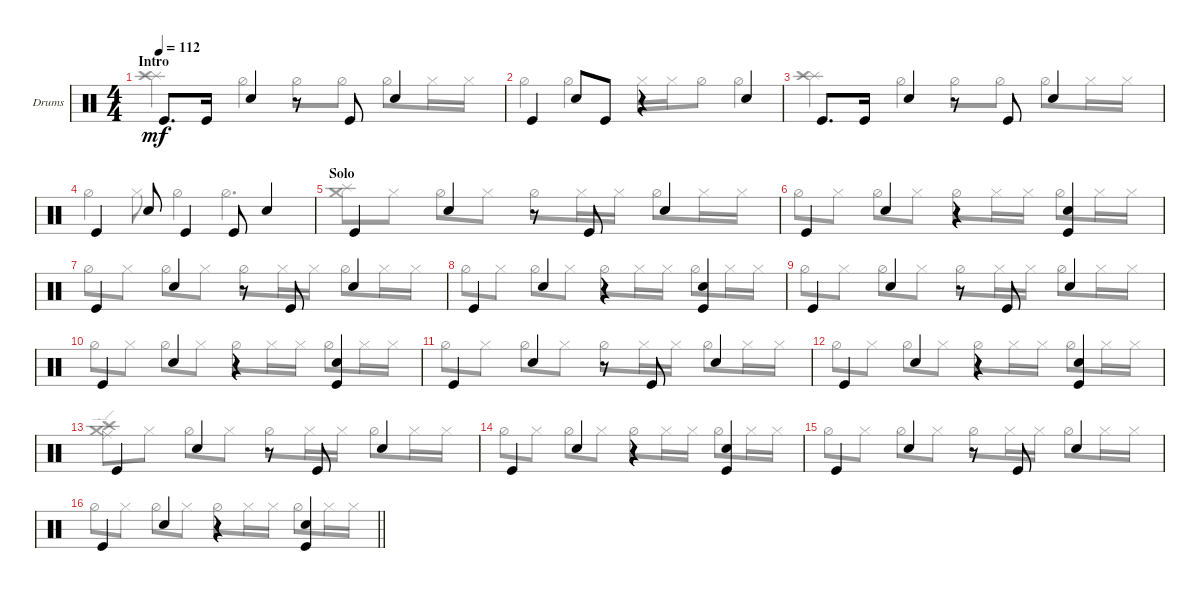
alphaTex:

\defaultSystemsLayout 4
\bracketExtendMode groupsimilarinstruments
\firstSystemTrackNameOrientation horizontal
\otherSystemsTrackNameOrientation horizontal
\track ("Drumkit" "Drums") {multiBarRest instrument percussion}
\staff {score}
\articulation defaults
\voice
\ts (4 4)
\section ("" "Intro")
\tempo 112
\clef neutral
\ks c "Kick (hit)".8{d dy mf} "Kick (hit)".16 "Snare (hit) 2".4
r.8 "Kick (hit)".8 "Snare (hit) 2".4 |
"Kick (hit)".4 "Snare (hit) 2".8 "Kick (hit)".8 r.4 "Snare (hit) 2".4 |
"Kick (hit)".8{d} "Kick (hit)".16 "Snare (hit) 2".4 r.8 "Kick (hit)".8 "Snare (hit) 2".4 |
"Kick (hit)".4 "Snare (hit) 2".8 "Kick (hit)".4 "Kick (hit)".8 "Snare (hit) 2".4 |
\section ("" "Solo")
"Kick (hit)".4 "Snare (hit) 2".4 r.8 "Kick (hit)".8 "Snare (hit) 2".4 |
"Kick (hit)".4 "Snare (hit) 2".4 r.4 ("Snare (hit) 2" "Kick (hit)").4 |
"Kick (hit)".4 "Snare (hit) 2".4 r.8 "Kick (hit)".8 "Snare (hit) 2".4 |
"Kick (hit)".4 "Snare (hit) 2".4 r.4 ("Snare (hit) 2" "Kick (hit)").4 |
"Kick (hit)".4 "Snare (hit) 2".4 r.8 "Kick (hit)".8 "Snare (hit) 2".4 |
"Kick (hit)".4 "Snare (hit) 2".4 r.4 ("Snare (hit) 2" "Kick (hit)").4 |
"Kick (hit)".4 "Snare (hit) 2".4 r.8 "Kick (hit)".8 "Snare (hit) 2".4 |
"Kick (hit)".4 "Snare (hit) 2".4 r.4 ("Snare (hit) 2" "Kick (hit)").4 |
"Kick (hit)".4 "Snare (hit) 2".4 r.8 "Kick (hit)".8 "Snare (hit) 2".4 |
"Kick (hit)".4 "Snare (hit) 2".4 r.4 ("Snare (hit) 2" "Kick (hit)").4 |
"Kick (hit)".4 "Snare (hit) 2".4 r.8 "Kick (hit)".8 "Snare (hit) 2".4 |
\barLineRight lightlight "Kick (hit)".4 "Snare (hit) 2".4
r.4 ("Snare (hit) 2" "Kick (hit)").4
\voice
\clef neutral
\ottava regular
\simile none
\ks c
("Splash (hit)" "Crash high (hit)").4{dy mf} "Hi-Hat (half)".4 "Hi-Hat (half)".8 "Hi-Hat (half)".8 "Hi-Hat (half)".8 "Hi-Hat (closed)".16 "Hi-Hat (closed)".16 |
"Hi-Hat (half)".4 "Hi-Hat (half)".4 "Hi-Hat (closed)".16 "Hi-Hat (closed)".16 "Hi-Hat (half)".8 "Hi-Hat (half)".4 |
("Splash (hit)" "Crash high (hit)").4 "Hi-Hat (half)".4 "Hi-Hat (half)".8 "Hi-Hat (half)".8 "Hi-Hat (half)".8 "Hi-Hat (closed)".16 "Hi-Hat (closed)".16 |
"Hi-Hat (half)".4 "Hi-Hat (closed)".8 "Hi-Hat (half)".4 "Hi-Hat (half)".4{d} |
("Crash medium (hit)" "Splash (hit)").8 "Hi-Hat (closed)".8 "Hi-Hat (half)".8 "Hi-Hat (closed)".8 "Hi-Hat (half)".8 "Hi-Hat (closed)".16 "Hi-Hat (closed)".16 "Hi-Hat (half)".8 "Hi-Hat (closed)".16 "Hi-Hat (closed)".16 |
"Hi-Hat (half)".8 "Hi-Hat (closed)".8 "Hi-Hat (half)".8 "Hi-Hat (closed)".8 "Hi-Hat (half)".8 "Hi-Hat (closed)".16 "Hi-Hat (closed)".16 "Hi-Hat (half)".8 "Hi-Hat (closed)".16 "Hi-Hat (closed)".16 |
"Hi-Hat (half)".8 "Hi-Hat (closed)".8 "Hi-Hat (half)".8 "Hi-Hat (closed)".8 "Hi-Hat (half)".8 "Hi-Hat (closed)".16 "Hi-Hat (closed)".16 "Hi-Hat (half)".8 "Hi-Hat (closed)".16 "Hi-Hat (closed)".16 |
"Hi-Hat (half)".8 "Hi-Hat (closed)".8 "Hi-Hat (half)".8 "Hi-Hat (closed)".8 "Hi-Hat (half)".8 "Hi-Hat (closed)".16 "Hi-Hat (closed)".16 "Hi-Hat (half)".8 "Hi-Hat (closed)".16 "Hi-Hat (closed)".16 |
"Hi-Hat (half)".8 "Hi-Hat (closed)".8 "Hi-Hat (half)".8 "Hi-Hat (closed)".8 "Hi-Hat (half)".8 "Hi-Hat (closed)".16 "Hi-Hat (closed)".16 "Hi-Hat (half)".8 "Hi-Hat (closed)".16 "Hi-Hat (closed)".16 |
"Hi-Hat (half)".8 "Hi-Hat (closed)".8 "Hi-Hat (half)".8 "Hi-Hat (closed)".8 "Hi-Hat (half)".8 "Hi-Hat (closed)".16 "Hi-Hat (closed)".16 "Hi-Hat (half)".8 "Hi-Hat (closed)".16 "Hi-Hat (closed)".16 |
"Hi-Hat (half)".8 "Hi-Hat (closed)".8 "Hi-Hat (half)".8 "Hi-Hat (closed)".8 "Hi-Hat (half)".8 "Hi-Hat (closed)".16 "Hi-Hat (closed)".16 "Hi-Hat (half)".8 "Hi-Hat (closed)".16 "Hi-Hat (closed)".16 |
"Hi-Hat (half)".8 "Hi-Hat (closed)".8 "Hi-Hat (half)".8 "Hi-Hat (closed)".8 "Hi-Hat (half)".8 "Hi-Hat (closed)".16 "Hi-Hat (closed)".16 "Hi-Hat (half)".8 "Hi-Hat (closed)".16 "Hi-Hat (closed)".16 |
("Crash high (hit)" "Crash medium (hit)" "Ride (edge)").8 "Hi-Hat (closed)".8 "Hi-Hat (half)".8 "Hi-Hat (closed)".8 "Hi-Hat (half)".8 "Hi-Hat (closed)".16 "Hi-Hat (closed)".16 "Hi-Hat (half)".8 "Hi-Hat (closed)".16 "Hi-Hat (closed)".16 |
"Hi-Hat (half)".8 "Hi-Hat (closed)".8 "Hi-Hat (half)".8 "Hi-Hat (closed)".8 "Hi-Hat (half)".8 "Hi-Hat (closed)".16 "Hi-Hat (closed)".16 "Hi-Hat (half)".8 "Hi-Hat (closed)".16 "Hi-Hat (closed)".16 |
"Hi-Hat (half)".8 "Hi-Hat (closed)".8 "Hi-Hat (half)".8 "Hi-Hat (closed)".8 "Hi-Hat (half)".8 "Hi-Hat (closed)".16 "Hi-Hat (closed)".16 "Hi-Hat (half)".8 "Hi-Hat (closed)".16 "Hi-Hat (closed)".16 |
\barLineRight lightlight "Hi-Hat (half)".8 "Hi-Hat (closed)".8 "Hi-Hat (half)".8 "Hi-Hat (closed)".8 "Hi-Hat (half)".8 "Hi-Hat (closed)".16 "Hi-Hat (closed)".16 "Hi-Hat (half)".8 "Hi-Hat (closed)".16 "Hi-Hat (closed)".16
